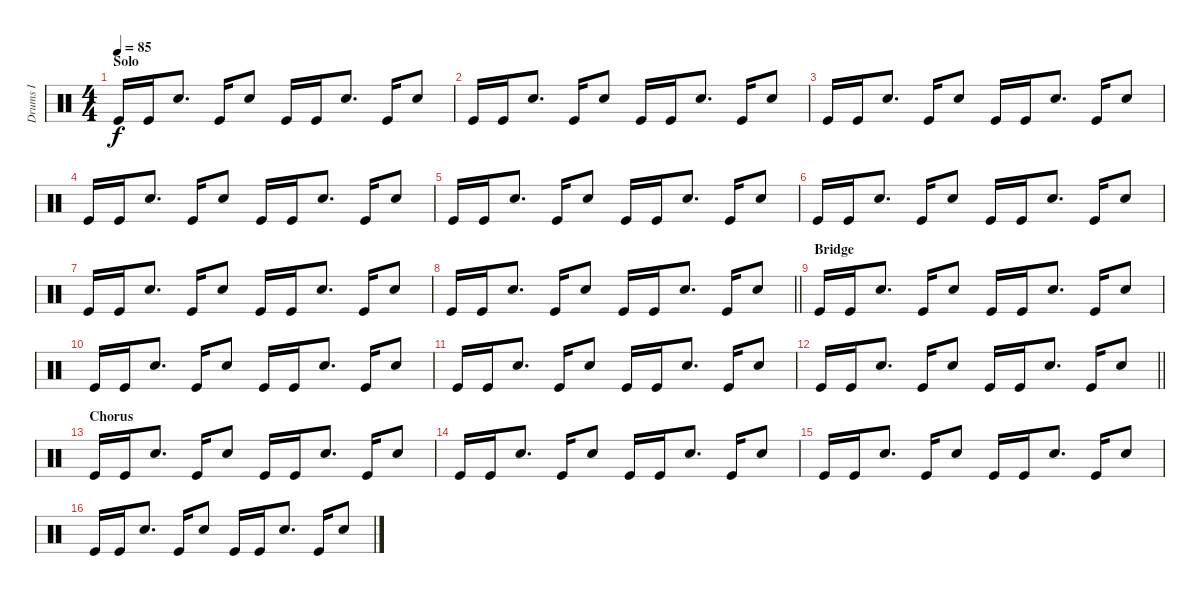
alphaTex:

\track ("Drums I" "Drums I") {instrument percussion}
\staff {score}
\articulation defaults
\ts (4 4)
\section ("" "Solo")
\tempo 85
\clef neutral
\ks c "Kick (hit)".16{dy f} "Kick (hit)".16 "Electric Snare (hit)".8{d} "Kick (hit)".16 "Electric Snare (hit)".8 "Kick (hit)".16 "Kick (hit)".16 "Electric Snare (hit)".8{d} "Kick (hit)".16 "Electric Snare (hit)".8
|
"Kick (hit)".16 "Kick (hit)".16 "Electric Snare (hit)".8{d} "Kick (hit)".16 "Electric Snare (hit)".8 "Kick (hit)".16 "Kick (hit)".16 "Electric Snare (hit)".8{d} "Kick (hit)".16 "Electric Snare (hit)".8 |
"Kick (hit)".16 "Kick (hit)".16 "Electric Snare (hit)".8{d} "Kick (hit)".16 "Electric Snare (hit)".8 "Kick (hit)".16 "Kick (hit)".16 "Electric Snare (hit)".8{d} "Kick (hit)".16 "Electric Snare (hit)".8 |
"Kick (hit)".16 "Kick (hit)".16 "Electric Snare (hit)".8{d} "Kick (hit)".16 "Electric Snare (hit)".8 "Kick (hit)".16 "Kick (hit)".16 "Electric Snare (hit)".8{d} "Kick (hit)".16 "Electric Snare (hit)".8 |
"Kick (hit)".16 "Kick (hit)".16 "Electric Snare (hit)".8{d} "Kick (hit)".16 "Electric Snare (hit)".8 "Kick (hit)".16 "Kick (hit)".16 "Electric Snare (hit)".8{d} "Kick (hit)".16 "Electric Snare (hit)".8 |
"Kick (hit)".16 "Kick (hit)".16 "Electric Snare (hit)".8{d} "Kick (hit)".16 "Electric Snare (hit)".8 "Kick (hit)".16 "Kick (hit)".16 "Electric Snare (hit)".8{d} "Kick (hit)".16 "Electric Snare (hit)".8 |
"Kick (hit)".16 "Kick (hit)".16 "Electric Snare (hit)".8{d} "Kick (hit)".16 "Electric Snare (hit)".8 "Kick (hit)".16 "Kick (hit)".16 "Electric Snare (hit)".8{d} "Kick (hit)".16 "Electric Snare (hit)".8 |
\barLineRight lightlight "Kick (hit)".16 "Kick (hit)".16 "Electric Snare (hit)".8{d} "Kick (hit)".16 "Electric Snare (hit)".8 "Kick (hit)".16 "Kick (hit)".16 "Electric Snare (hit)".8{d} "Kick (hit)".16 "Electric Snare (hit)".8
|
\section ("" "Bridge")
"Kick (hit)".16 "Kick (hit)".16 "Electric Snare (hit)".8{d} "Kick (hit)".16 "Electric Snare (hit)".8 "Kick (hit)".16 "Kick (hit)".16 "Electric Snare (hit)".8{d} "Kick (hit)".16 "Electric Snare (hit)".8 |
"Kick (hit)".16 "Kick (hit)".16 "Electric Snare (hit)".8{d} "Kick (hit)".16 "Electric Snare (hit)".8 "Kick (hit)".16 "Kick (hit)".16 "Electric Snare (hit)".8{d} "Kick (hit)".16 "Electric Snare (hit)".8 |
"Kick (hit)".16 "Kick (hit)".16 "Electric Snare (hit)".8{d} "Kick (hit)".16 "Electric Snare (hit)".8 "Kick (hit)".16 "Kick (hit)".16 "Electric Snare (hit)".8{d} "Kick (hit)".16 "Electric Snare (hit)".8 |
\barLineRight lightlight "Kick (hit)".16 "Kick (hit)".16 "Electric Snare (hit)".8{d} "Kick (hit)".16 "Electric Snare (hit)".8 "Kick (hit)".16 "Kick (hit)".16 "Electric Snare (hit)".8{d} "Kick (hit)".16 "Electric Snare (hit)".8
|
\section ("" "Chorus")
"Kick (hit)".16 "Kick (hit)".16 "Electric Snare (hit)".8{d} "Kick (hit)".16 "Electric Snare (hit)".8 "Kick (hit)".16 "Kick (hit)".16 "Electric Snare (hit)".8{d} "Kick (hit)".16 "Electric Snare (hit)".8 |
"Kick (hit)".16 "Kick (hit)".16 "Electric Snare (hit)".8{d} "Kick (hit)".16 "Electric Snare (hit)".8 "Kick (hit)".16 "Kick (hit)".16 "Electric Snare (hit)".8{d} "Kick (hit)".16 "Electric Snare (hit)".8 |
"Kick (hit)".16 "Kick (hit)".16 "Electric Snare (hit)".8{d} "Kick (hit)".16 "Electric Snare (hit)".8 "Kick (hit)".16 "Kick (hit)".16 "Electric Snare (hit)".8{d} "Kick (hit)".16 "Electric Snare (hit)".8 |
"Kick (hit)".16 "Kick (hit)".16 "Electric Snare (hit)".8{d} "Kick (hit)".16 "Electric Snare (hit)".8 "Kick (hit)".16 "Kick (hit)".16 "Electric Snare (hit)".8{d} "Kick (hit)".16 "Electric Snare (hit)".8
